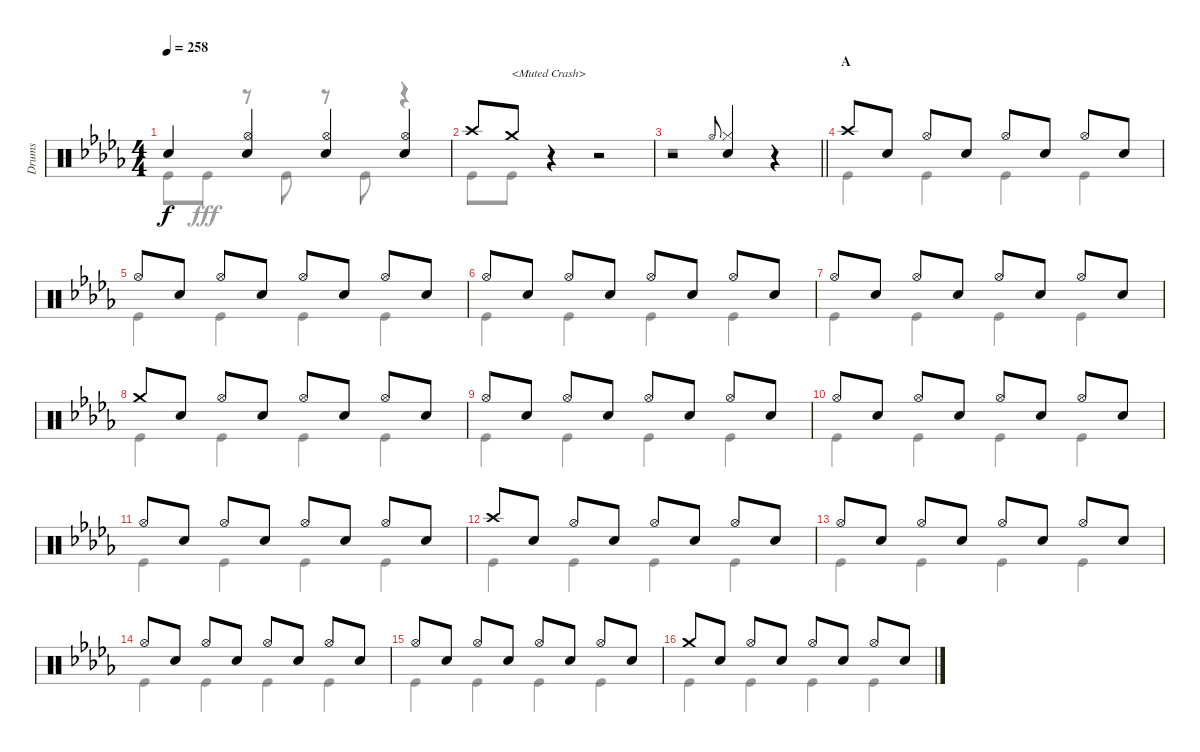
\track ("Drums" "Drums") {instrument percussion}
\staff {score}
\articulation defaults
\voice
\ts (4 4)
\tempo 258
\clef neutral
\ks db "Snare (hit)"{t}.4{dy f}
("Hi-Hat (open)" "Snare (hit) 2").4 ("Hi-Hat (open)" "Snare (hit) 2").4 ("Hi-Hat (open)" "Snare (hit) 2").4 |
"Crash high (hit)".8 "Crash medium (hit)".8{txt "<Muted Crash>"} r.4 r.2 |
\barLineRight lightlight
r.2 "Hi-Hat (open)".8{gr onbeat} ("Hi-Hat (closed)" "Snare (hit) 2").4 r.4 |
\section ("" "A")
"Crash high (hit)".8 "Snare (hit) 2".8 "Hi-Hat (open)".8 "Snare (hit) 2".8 "Hi-Hat (open)".8 "Snare (hit) 2".8 "Hi-Hat (open)".8 "Snare (hit) 2".8 |
"Hi-Hat (open)".8 "Snare (hit) 2".8 "Hi-Hat (open)".8 "Snare (hit) 2".8 "Hi-Hat (open)".8 "Snare (hit) 2".8 "Hi-Hat (open)".8 "Snare (hit) 2".8 |
"Hi-Hat (open)".8 "Snare (hit) 2".8 "Hi-Hat (open)".8 "Snare (hit) 2".8 "Hi-Hat (open)".8 "Snare (hit) 2".8 "Hi-Hat (open)".8 "Snare (hit) 2".8 |
"Hi-Hat (open)".8 "Snare (hit) 2".8 "Hi-Hat (open)".8 "Snare (hit) 2".8 "Hi-Hat (open)".8 "Snare (hit) 2".8 "Hi-Hat (open)".8 "Snare (hit) 2".8 |
"Crash medium (hit)".8 "Snare (hit) 2".8 "Hi-Hat (open)".8 "Snare (hit) 2".8 "Hi-Hat (open)".8 "Snare (hit) 2".8 "Hi-Hat (open)".8 "Snare (hit) 2".8 |
"Hi-Hat (open)".8 "Snare (hit) 2".8 "Hi-Hat (open)".8 "Snare (hit) 2".8 "Hi-Hat (open)".8 "Snare (hit) 2".8 "Hi-Hat (open)".8 "Snare (hit) 2".8 |
"Hi-Hat (open)".8 "Snare (hit) 2".8 "Hi-Hat (open)".8 "Snare (hit) 2".8 "Hi-Hat (open)".8 "Snare (hit) 2".8 "Hi-Hat (open)".8 "Snare (hit) 2".8 |
"Hi-Hat (open)".8 "Snare (hit) 2".8 "Hi-Hat (open)".8 "Snare (hit) 2".8 "Hi-Hat (open)".8 "Snare (hit) 2".8 "Hi-Hat (open)".8 "Snare (hit) 2".8 |
"Crash high (hit)".8 "Snare (hit) 2".8 "Hi-Hat (open)".8 "Snare (hit) 2".8 "Hi-Hat (open)".8 "Snare (hit) 2".8 "Hi-Hat (open)".8 "Snare (hit) 2".8 |
"Hi-Hat (open)".8 "Snare (hit) 2".8 "Hi-Hat (open)".8 "Snare (hit) 2".8 "Hi-Hat (open)".8 "Snare (hit) 2".8 "Hi-Hat (open)".8 "Snare (hit) 2".8 |
"Hi-Hat (open)".8 "Snare (hit) 2".8 "Hi-Hat (open)".8 "Snare (hit) 2".8 "Hi-Hat (open)".8 "Snare (hit) 2".8 "Hi-Hat (open)".8 "Snare (hit) 2".8 |
"Hi-Hat (open)".8 "Snare (hit) 2".8 "Hi-Hat (open)".8 "Snare (hit) 2".8 "Hi-Hat (open)".8 "Snare (hit) 2".8 "Hi-Hat (open)".8 "Snare (hit) 2".8 |
"Crash medium (hit)".8 "Snare (hit) 2".8 "Hi-Hat (open)".8 "Snare (hit) 2".8 "Hi-Hat (open)".8 "Snare (hit) 2".8 "Hi-Hat (open)".8 "Snare (hit) 2".8
\voice
\clef neutral
\ottava regular
\simile none
\ks db "Kick (hit)"{t}.8{dy f} "Kick (hit)".8{dy fff}
r.8 "Kick (hit)".8 r.8 "Kick (hit)".8 r.4 |
"Kick (hit)".8 "Kick (hit)".8 r.4 r.2 |
\barLineRight lightlight
r.1 |
"Kick (hit)".4 "Kick (hit)".4 "Kick (hit)".4 "Kick (hit)".4 |
"Kick (hit)".4 "Kick (hit)".4 "Kick (hit)".4 "Kick (hit)".4 |
"Kick (hit)".4 "Kick (hit)".4 "Kick (hit)".4 "Kick (hit)".4 |
"Kick (hit)".4 "Kick (hit)".4 "Kick (hit)".4 "Kick (hit)".4 |
"Kick (hit)".4 "Kick (hit)".4 "Kick (hit)".4 "Kick (hit)".4 |
"Kick (hit)".4 "Kick (hit)".4 "Kick (hit)".4 "Kick (hit)".4 |
"Kick (hit)".4 "Kick (hit)".4 "Kick (hit)".4 "Kick (hit)".4 |
"Kick (hit)".4 "Kick (hit)".4 "Kick (hit)".4 "Kick (hit)".4 |
"Kick (hit)".4 "Kick (hit)".4 "Kick (hit)".4 "Kick (hit)".4 |
"Kick (hit)".4 "Kick (hit)".4 "Kick (hit)".4 "Kick (hit)".4 |
"Kick (hit)".4 "Kick (hit)".4 "Kick (hit)".4 "Kick (hit)".4 |
"Kick (hit)".4 "Kick (hit)".4 "Kick (hit)".4 "Kick (hit)".4 |
"Kick (hit)".4 "Kick (hit)".4 "Kick (hit)".4 "Kick (hit)".4
